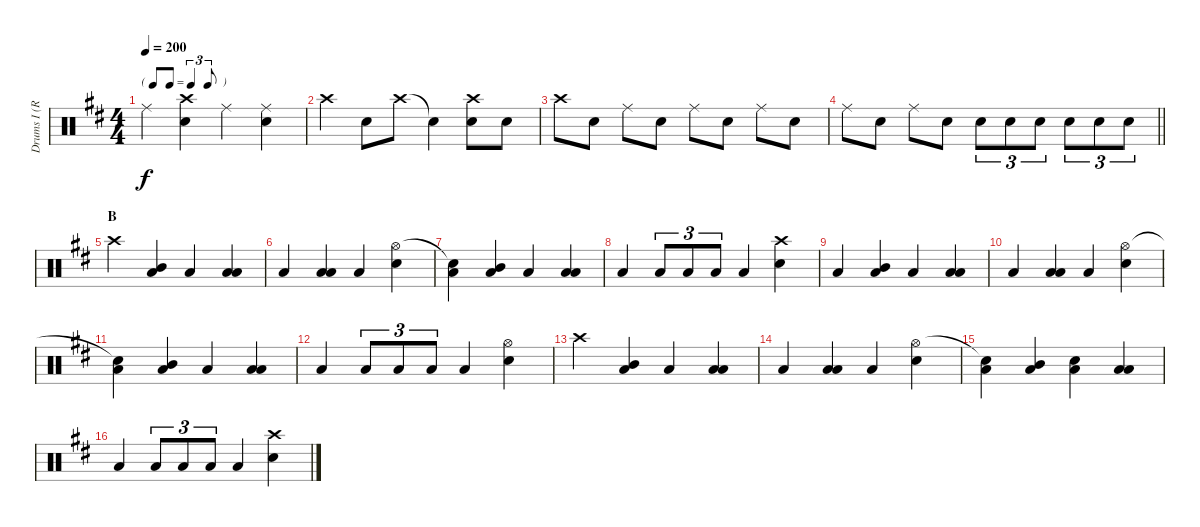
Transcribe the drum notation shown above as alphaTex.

\track ("Drums I (Ruka)" "Drums I (R") {instrument percussion}
\staff {score}
\articulation defaults
\ts (4 4)
\tf triplet8th
\tempo 200
\clef neutral
\ks d "Ride (middle)".4{dy f}
("Crash high (hit)" "Snare (hit) 2").4 "Ride (middle)".4 ("Ride (middle)" "Snare (hit) 2").4 |
"Crash high (hit)".4 "Snare (hit) 2".8 "Crash high (hit)".8 "Snare (hit)"{t}.4 ("Crash high (hit)" "Snare (hit) 2").8 "Snare (hit) 2".8 |
"Crash high (hit)".8 "Snare (hit) 2".8 "Ride (middle)".8 "Snare (hit) 2".8 "Ride (middle)".8 "Snare (hit) 2".8 "Ride (middle)".8 "Snare (hit) 2".8 |
\barLineRight lightlight "Ride (middle)".8 "Snare (hit) 2".8 "Ride (middle)".8 "Snare (hit) 2".8 "Snare (hit) 2".8{tu (3 2)} "Snare (hit) 2".8{tu (3 2)} "Snare (hit) 2".8{tu (3 2)} "Snare (hit) 2".8{tu (3 2)} "Snare (hit) 2".8{tu (3 2)} "Snare (hit) 2".8{tu (3 2)}
|
\section ("" "B")
"Crash high (hit)".4 ("Mid Tom (hit)" "Low Floor Tom (hit)").4 "Low Floor Tom (hit)".4 ("Low Tom (hit)" "Low Floor Tom (hit)").4 |
"Low Floor Tom (hit)".4 ("Low Tom (hit)" "Low Floor Tom (hit)").4 "Low Floor Tom (hit)".4 ("Hi-Hat (open)" "Snare (hit) 2").4 |
("Snare (hit)"{t} "Low Floor Tom (hit)").4 ("Mid Tom (hit)" "Low Floor Tom (hit)").4 "Low Floor Tom (hit)".4 ("Low Tom (hit)" "Low Floor Tom (hit)").4 |
"Low Floor Tom (hit)".4 "Low Floor Tom (hit)".8{tu (3 2)} "Low Floor Tom (hit)".8{tu (3 2)} "Low Floor Tom (hit)".8{tu (3 2)} "Low Floor Tom (hit)".4 ("Crash high (hit)" "Snare (hit) 2").4 |
"Low Floor Tom (hit)".4 ("Mid Tom (hit)" "Low Floor Tom (hit)").4 "Low Floor Tom (hit)".4 ("Low Tom (hit)" "Low Floor Tom (hit)").4 |
"Low Floor Tom (hit)".4 ("Low Tom (hit)" "Low Floor Tom (hit)").4 "Low Floor Tom (hit)".4 ("Hi-Hat (open)" "Snare (hit) 2").4 |
("Snare (hit)"{t} "Low Floor Tom (hit)").4 ("Mid Tom (hit)" "Low Floor Tom (hit)").4 "Low Floor Tom (hit)".4 ("Low Tom (hit)" "Low Floor Tom (hit)").4 |
"Low Floor Tom (hit)".4 "Low Floor Tom (hit)".8{tu (3 2)} "Low Floor Tom (hit)".8{tu (3 2)} "Low Floor Tom (hit)".8{tu (3 2)} "Low Floor Tom (hit)".4 ("Hi-Hat (open)" "Snare (hit) 2").4 |
"Crash high (hit)".4 ("Mid Tom (hit)" "Low Floor Tom (hit)").4 "Low Floor Tom (hit)".4 ("Low Tom (hit)" "Low Floor Tom (hit)").4 |
"Low Floor Tom (hit)".4 ("Low Tom (hit)" "Low Floor Tom (hit)").4 "Low Floor Tom (hit)".4 ("Hi-Hat (open)" "Snare (hit) 2").4 |
("Snare (hit)"{t} "Low Floor Tom (hit)").4 ("Mid Tom (hit)" "Low Floor Tom (hit)").4 ("Snare (hit) 2" "Low Floor Tom (hit)").4 ("Low Tom (hit)" "Low Floor Tom (hit)").4 |
"Low Floor Tom (hit)".4 "Low Floor Tom (hit)".8{tu (3 2)} "Low Floor Tom (hit)".8{tu (3 2)} "Low Floor Tom (hit)".8{tu (3 2)} "Low Floor Tom (hit)".4 ("Crash high (hit)" "Snare (hit) 2").4
